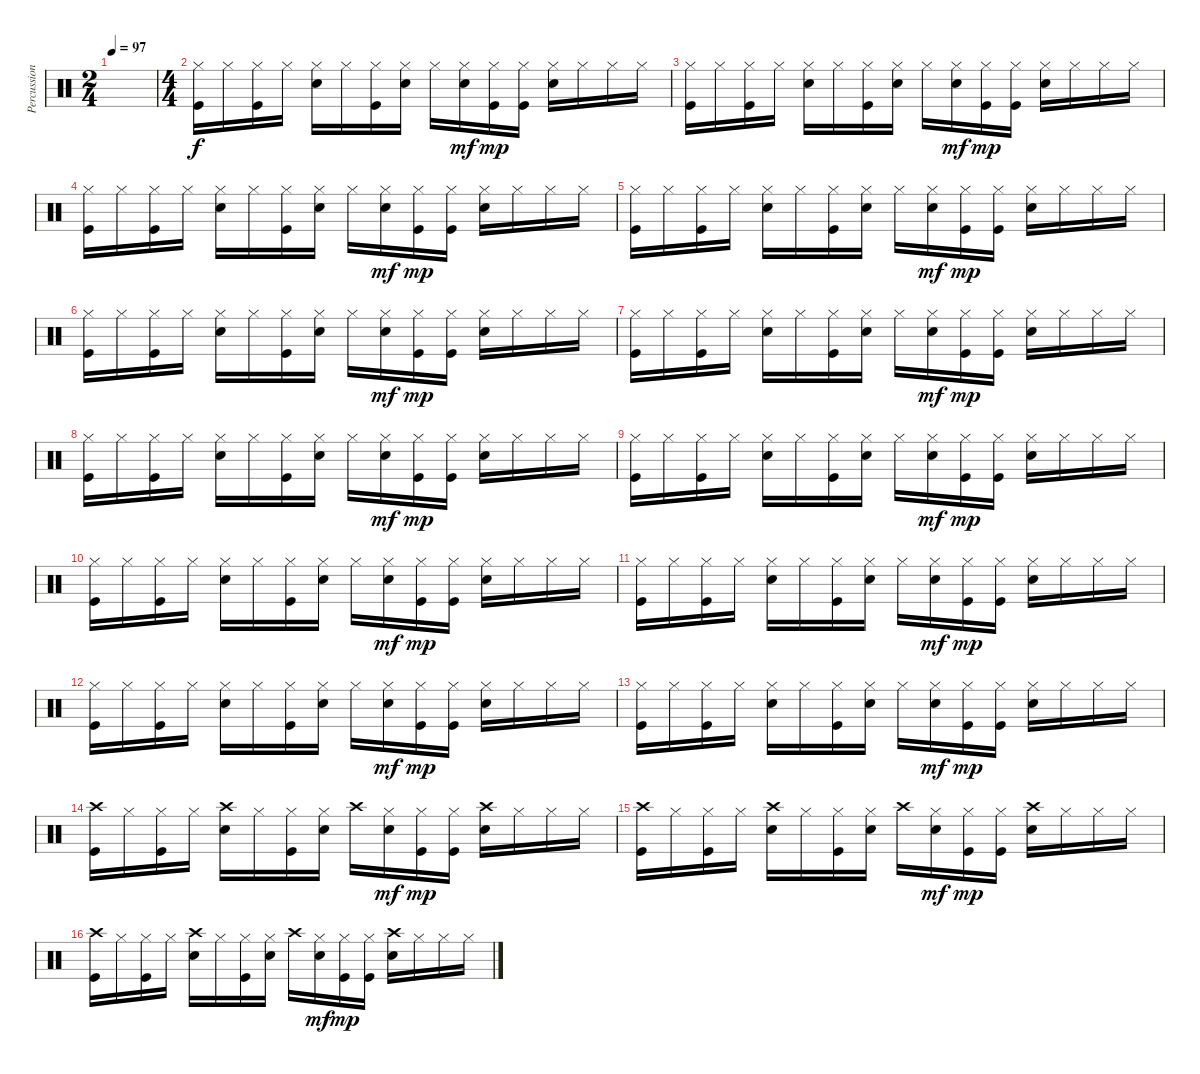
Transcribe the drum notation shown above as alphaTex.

\track ("Percussions" "Percussion") {instrument percussion}
\staff {score}
\articulation defaults
\ts (2 4)
\tempo 97
\clef neutral
\ks c
|
\ts (4 4)
("Hi-Hat (closed)" "Kick (hit)").16 "Hi-Hat (closed)".16 ("Hi-Hat (closed)" "Kick (hit)").16 "Hi-Hat (closed)".16 ("Hi-Hat (closed)" "Electric Snare (hit)").16 "Hi-Hat (closed)".16 ("Hi-Hat (closed)" "Kick (hit)").16 ("Hi-Hat (closed)" "Electric Snare (hit)"{tr (40 64)}).16 "Hi-Hat (closed)".16 ("Hi-Hat (closed)" "Electric Snare (hit)").16{dy mf} ("Hi-Hat (closed)" "Kick (hit)").16{dy mp} ("Hi-Hat (closed)" "Kick (hit)").16 ("Hi-Hat (closed)" "Electric Snare (hit)").16 "Hi-Hat (closed)".16 "Hi-Hat (closed)".16 "Hi-Hat (closed)".16 |
("Hi-Hat (closed)" "Kick (hit)").16 "Hi-Hat (closed)".16 ("Hi-Hat (closed)" "Kick (hit)").16 "Hi-Hat (closed)".16 ("Hi-Hat (closed)" "Electric Snare (hit)").16 "Hi-Hat (closed)".16 ("Hi-Hat (closed)" "Kick (hit)").16 ("Hi-Hat (closed)" "Electric Snare (hit)"{tr (40 64)}).16 "Hi-Hat (closed)".16 ("Hi-Hat (closed)" "Electric Snare (hit)").16{dy mf} ("Hi-Hat (closed)" "Kick (hit)").16{dy mp} ("Hi-Hat (closed)" "Kick (hit)").16 ("Hi-Hat (closed)" "Electric Snare (hit)").16 "Hi-Hat (closed)".16 "Hi-Hat (closed)".16 "Hi-Hat (closed)".16 |
("Hi-Hat (closed)" "Kick (hit)").16 "Hi-Hat (closed)".16 ("Hi-Hat (closed)" "Kick (hit)").16 "Hi-Hat (closed)".16 ("Hi-Hat (closed)" "Electric Snare (hit)").16 "Hi-Hat (closed)".16 ("Hi-Hat (closed)" "Kick (hit)").16 ("Hi-Hat (closed)" "Electric Snare (hit)"{tr (40 64)}).16 "Hi-Hat (closed)".16 ("Hi-Hat (closed)" "Electric Snare (hit)").16{dy mf} ("Hi-Hat (closed)" "Kick (hit)").16{dy mp} ("Hi-Hat (closed)" "Kick (hit)").16 ("Hi-Hat (closed)" "Electric Snare (hit)").16 "Hi-Hat (closed)".16 "Hi-Hat (closed)".16 "Hi-Hat (closed)".16 |
("Hi-Hat (closed)" "Kick (hit)").16 "Hi-Hat (closed)".16 ("Hi-Hat (closed)" "Kick (hit)").16 "Hi-Hat (closed)".16 ("Hi-Hat (closed)" "Electric Snare (hit)").16 "Hi-Hat (closed)".16 ("Hi-Hat (closed)" "Kick (hit)").16 ("Hi-Hat (closed)" "Electric Snare (hit)"{tr (40 64)}).16 "Hi-Hat (closed)".16 ("Hi-Hat (closed)" "Electric Snare (hit)").16{dy mf} ("Hi-Hat (closed)" "Kick (hit)").16{dy mp} ("Hi-Hat (closed)" "Kick (hit)").16 ("Hi-Hat (closed)" "Electric Snare (hit)").16 "Hi-Hat (closed)".16 "Hi-Hat (closed)".16 "Hi-Hat (closed)".16 |
("Hi-Hat (closed)" "Kick (hit)").16 "Hi-Hat (closed)".16 ("Hi-Hat (closed)" "Kick (hit)").16 "Hi-Hat (closed)".16 ("Hi-Hat (closed)" "Electric Snare (hit)").16 "Hi-Hat (closed)".16 ("Hi-Hat (closed)" "Kick (hit)").16 ("Hi-Hat (closed)" "Electric Snare (hit)"{tr (40 64)}).16 "Hi-Hat (closed)".16 ("Hi-Hat (closed)" "Electric Snare (hit)").16{dy mf} ("Hi-Hat (closed)" "Kick (hit)").16{dy mp} ("Hi-Hat (closed)" "Kick (hit)").16 ("Hi-Hat (closed)" "Electric Snare (hit)").16 "Hi-Hat (closed)".16 "Hi-Hat (closed)".16 "Hi-Hat (closed)".16 |
("Hi-Hat (closed)" "Kick (hit)").16 "Hi-Hat (closed)".16 ("Hi-Hat (closed)" "Kick (hit)").16 "Hi-Hat (closed)".16 ("Hi-Hat (closed)" "Electric Snare (hit)").16 "Hi-Hat (closed)".16 ("Hi-Hat (closed)" "Kick (hit)").16 ("Hi-Hat (closed)" "Electric Snare (hit)"{tr (40 64)}).16 "Hi-Hat (closed)".16 ("Hi-Hat (closed)" "Electric Snare (hit)").16{dy mf} ("Hi-Hat (closed)" "Kick (hit)").16{dy mp} ("Hi-Hat (closed)" "Kick (hit)").16 ("Hi-Hat (closed)" "Electric Snare (hit)").16 "Hi-Hat (closed)".16 "Hi-Hat (closed)".16 "Hi-Hat (closed)".16 |
("Hi-Hat (closed)" "Kick (hit)").16 "Hi-Hat (closed)".16 ("Hi-Hat (closed)" "Kick (hit)").16 "Hi-Hat (closed)".16 ("Hi-Hat (closed)" "Electric Snare (hit)").16 "Hi-Hat (closed)".16 ("Hi-Hat (closed)" "Kick (hit)").16 ("Hi-Hat (closed)" "Electric Snare (hit)"{tr (40 64)}).16 "Hi-Hat (closed)".16 ("Hi-Hat (closed)" "Electric Snare (hit)").16{dy mf} ("Hi-Hat (closed)" "Kick (hit)").16{dy mp} ("Hi-Hat (closed)" "Kick (hit)").16 ("Hi-Hat (closed)" "Electric Snare (hit)").16 "Hi-Hat (closed)".16 "Hi-Hat (closed)".16 "Hi-Hat (closed)".16 |
("Hi-Hat (closed)" "Kick (hit)").16 "Hi-Hat (closed)".16 ("Hi-Hat (closed)" "Kick (hit)").16 "Hi-Hat (closed)".16 ("Hi-Hat (closed)" "Electric Snare (hit)").16 "Hi-Hat (closed)".16 ("Hi-Hat (closed)" "Kick (hit)").16 ("Hi-Hat (closed)" "Electric Snare (hit)"{tr (40 64)}).16 "Hi-Hat (closed)".16 ("Hi-Hat (closed)" "Electric Snare (hit)").16{dy mf} ("Hi-Hat (closed)" "Kick (hit)").16{dy mp} ("Hi-Hat (closed)" "Kick (hit)").16 ("Hi-Hat (closed)" "Electric Snare (hit)").16 "Hi-Hat (closed)".16 "Hi-Hat (closed)".16 "Hi-Hat (closed)".16 |
("Hi-Hat (closed)" "Kick (hit)").16 "Hi-Hat (closed)".16 ("Hi-Hat (closed)" "Kick (hit)").16 "Hi-Hat (closed)".16 ("Hi-Hat (closed)" "Electric Snare (hit)").16 "Hi-Hat (closed)".16 ("Hi-Hat (closed)" "Kick (hit)").16 ("Hi-Hat (closed)" "Electric Snare (hit)"{tr (40 64)}).16 "Hi-Hat (closed)".16 ("Hi-Hat (closed)" "Electric Snare (hit)").16{dy mf} ("Hi-Hat (closed)" "Kick (hit)").16{dy mp} ("Hi-Hat (closed)" "Kick (hit)").16 ("Hi-Hat (closed)" "Electric Snare (hit)").16 "Hi-Hat (closed)".16 "Hi-Hat (closed)".16 "Hi-Hat (closed)".16 |
("Hi-Hat (closed)" "Kick (hit)").16 "Hi-Hat (closed)".16 ("Hi-Hat (closed)" "Kick (hit)").16 "Hi-Hat (closed)".16 ("Hi-Hat (closed)" "Electric Snare (hit)").16 "Hi-Hat (closed)".16 ("Hi-Hat (closed)" "Kick (hit)").16 ("Hi-Hat (closed)" "Electric Snare (hit)"{tr (40 64)}).16 "Hi-Hat (closed)".16 ("Hi-Hat (closed)" "Electric Snare (hit)").16{dy mf} ("Hi-Hat (closed)" "Kick (hit)").16{dy mp} ("Hi-Hat (closed)" "Kick (hit)").16 ("Hi-Hat (closed)" "Electric Snare (hit)").16 "Hi-Hat (closed)".16 "Hi-Hat (closed)".16 "Hi-Hat (closed)".16 |
("Hi-Hat (closed)" "Kick (hit)").16 "Hi-Hat (closed)".16 ("Hi-Hat (closed)" "Kick (hit)").16 "Hi-Hat (closed)".16 ("Hi-Hat (closed)" "Electric Snare (hit)").16 "Hi-Hat (closed)".16 ("Hi-Hat (closed)" "Kick (hit)").16 ("Hi-Hat (closed)" "Electric Snare (hit)"{tr (40 64)}).16 "Hi-Hat (closed)".16 ("Hi-Hat (closed)" "Electric Snare (hit)").16{dy mf} ("Hi-Hat (closed)" "Kick (hit)").16{dy mp} ("Hi-Hat (closed)" "Kick (hit)").16 ("Hi-Hat (closed)" "Electric Snare (hit)").16 "Hi-Hat (closed)".16 "Hi-Hat (closed)".16 "Hi-Hat (closed)".16 |
("Hi-Hat (closed)" "Kick (hit)").16 "Hi-Hat (closed)".16 ("Hi-Hat (closed)" "Kick (hit)").16 "Hi-Hat (closed)".16 ("Hi-Hat (closed)" "Electric Snare (hit)").16 "Hi-Hat (closed)".16 ("Hi-Hat (closed)" "Kick (hit)").16 ("Hi-Hat (closed)" "Electric Snare (hit)"{tr (40 64)}).16 "Hi-Hat (closed)".16 ("Hi-Hat (closed)" "Electric Snare (hit)").16{dy mf} ("Hi-Hat (closed)" "Kick (hit)").16{dy mp} ("Hi-Hat (closed)" "Kick (hit)").16 ("Hi-Hat (closed)" "Electric Snare (hit)").16 "Hi-Hat (closed)".16 "Hi-Hat (closed)".16 "Hi-Hat (closed)".16 |
("Crash high (hit)" "Kick (hit)").16 "Hi-Hat (closed)".16 ("Hi-Hat (closed)" "Kick (hit)").16 "Hi-Hat (closed)".16 ("Crash high (hit)" "Electric Snare (hit)").16 "Hi-Hat (closed)".16 ("Hi-Hat (closed)" "Kick (hit)").16 ("Hi-Hat (closed)" "Electric Snare (hit)"{tr (40 64)}).16 "Crash high (hit)".16 ("Hi-Hat (closed)" "Electric Snare (hit)").16{dy mf} ("Hi-Hat (closed)" "Kick (hit)").16{dy mp} ("Hi-Hat (closed)" "Kick (hit)").16 ("Crash high (hit)" "Electric Snare (hit)").16 "Hi-Hat (closed)".16 "Hi-Hat (closed)".16 "Hi-Hat (closed)".16 |
("Crash high (hit)" "Kick (hit)").16 "Hi-Hat (closed)".16 ("Hi-Hat (closed)" "Kick (hit)").16 "Hi-Hat (closed)".16 ("Crash high (hit)" "Electric Snare (hit)").16 "Hi-Hat (closed)".16 ("Hi-Hat (closed)" "Kick (hit)").16 ("Hi-Hat (closed)" "Electric Snare (hit)"{tr (40 64)}).16 "Crash high (hit)".16 ("Hi-Hat (closed)" "Electric Snare (hit)").16{dy mf} ("Hi-Hat (closed)" "Kick (hit)").16{dy mp} ("Hi-Hat (closed)" "Kick (hit)").16 ("Crash high (hit)" "Electric Snare (hit)").16 "Hi-Hat (closed)".16 "Hi-Hat (closed)".16 "Hi-Hat (closed)".16 |
("Crash high (hit)" "Kick (hit)").16 "Hi-Hat (closed)".16 ("Hi-Hat (closed)" "Kick (hit)").16 "Hi-Hat (closed)".16 ("Crash high (hit)" "Electric Snare (hit)").16 "Hi-Hat (closed)".16 ("Hi-Hat (closed)" "Kick (hit)").16 ("Hi-Hat (closed)" "Electric Snare (hit)"{tr (40 64)}).16 "Crash high (hit)".16 ("Hi-Hat (closed)" "Electric Snare (hit)").16{dy mf} ("Hi-Hat (closed)" "Kick (hit)").16{dy mp} ("Hi-Hat (closed)" "Kick (hit)").16 ("Crash high (hit)" "Electric Snare (hit)").16 "Hi-Hat (closed)".16 "Hi-Hat (closed)".16 "Hi-Hat (closed)".16
